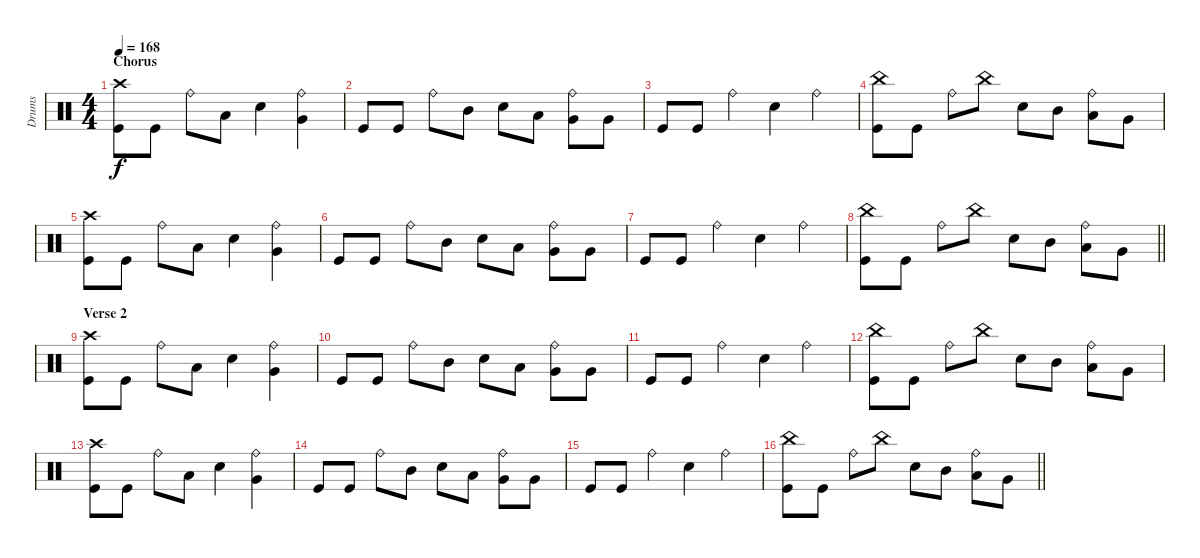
\track ("Drums" "Drums") {instrument percussion}
\staff {score}
\articulation defaults
\ts (4 4)
\section ("" "Chorus")
\tempo 168
\clef neutral
\ks c
("Crash high (hit)" "Kick (hit)").8{dy f} "Kick (hit)".8 "Ride (bell)".8 "Low Tom (hit)".8 "Electric Snare (hit)".4 ("Ride (bell)" "Very Low Tom (hit)").4 |
"Kick (hit)".8 "Kick (hit)".8 "Ride (bell)".8 "Mid Tom (hit)".8 "Electric Snare (hit)".8 "Low Tom (hit)".8 ("Ride (bell)" "Very Low Tom (hit)").8 "Very Low Tom (hit)".8 |
"Kick (hit)".8 "Kick (hit)".8 "Ride (bell)".4 "Electric Snare (hit)".4 "Ride (bell)".4 |
("China (hit)" "Kick (hit)").8 "Kick (hit)".8 "Ride (bell)".8 "China (hit)".8 "Electric Snare (hit)".8 "Mid Tom (hit)".8 ("Ride (bell)" "Low Tom (hit)").8 "Very Low Tom (hit)".8 |
("Crash high (hit)" "Kick (hit)").8 "Kick (hit)".8 "Ride (bell)".8 "Low Tom (hit)".8 "Electric Snare (hit)".4 ("Ride (bell)" "Very Low Tom (hit)").4 |
"Kick (hit)".8 "Kick (hit)".8 "Ride (bell)".8 "Mid Tom (hit)".8 "Electric Snare (hit)".8 "Low Tom (hit)".8 ("Ride (bell)" "Very Low Tom (hit)").8 "Very Low Tom (hit)".8 |
"Kick (hit)".8 "Kick (hit)".8 "Ride (bell)".4 "Electric Snare (hit)".4 "Ride (bell)".4 |
\barLineRight lightlight
("China (hit)" "Kick (hit)").8 "Kick (hit)".8 "Ride (bell)".8 "China (hit)".8 "Electric Snare (hit)".8 "Mid Tom (hit)".8 ("Ride (bell)" "Low Tom (hit)").8 "Very Low Tom (hit)".8 |
\section ("" "Verse 2")
("Crash high (hit)" "Kick (hit)").8 "Kick (hit)".8 "Ride (bell)".8 "Low Tom (hit)".8 "Electric Snare (hit)".4 ("Ride (bell)" "Very Low Tom (hit)").4 |
"Kick (hit)".8 "Kick (hit)".8 "Ride (bell)".8 "Mid Tom (hit)".8 "Electric Snare (hit)".8 "Low Tom (hit)".8 ("Ride (bell)" "Very Low Tom (hit)").8 "Very Low Tom (hit)".8 |
"Kick (hit)".8 "Kick (hit)".8 "Ride (bell)".4 "Electric Snare (hit)".4 "Ride (bell)".4 |
("China (hit)" "Kick (hit)").8 "Kick (hit)".8 "Ride (bell)".8 "China (hit)".8 "Electric Snare (hit)".8 "Mid Tom (hit)".8 ("Ride (bell)" "Low Tom (hit)").8 "Very Low Tom (hit)".8 |
("Crash high (hit)" "Kick (hit)").8 "Kick (hit)".8 "Ride (bell)".8 "Low Tom (hit)".8 "Electric Snare (hit)".4 ("Ride (bell)" "Very Low Tom (hit)").4 |
"Kick (hit)".8 "Kick (hit)".8 "Ride (bell)".8 "Mid Tom (hit)".8 "Electric Snare (hit)".8 "Low Tom (hit)".8 ("Ride (bell)" "Very Low Tom (hit)").8 "Very Low Tom (hit)".8 |
"Kick (hit)".8 "Kick (hit)".8 "Ride (bell)".4 "Electric Snare (hit)".4 "Ride (bell)".4 |
\barLineRight lightlight
("China (hit)" "Kick (hit)").8 "Kick (hit)".8 "Ride (bell)".8 "China (hit)".8 "Electric Snare (hit)".8 "Mid Tom (hit)".8 ("Ride (bell)" "Low Tom (hit)").8 "Very Low Tom (hit)".8
